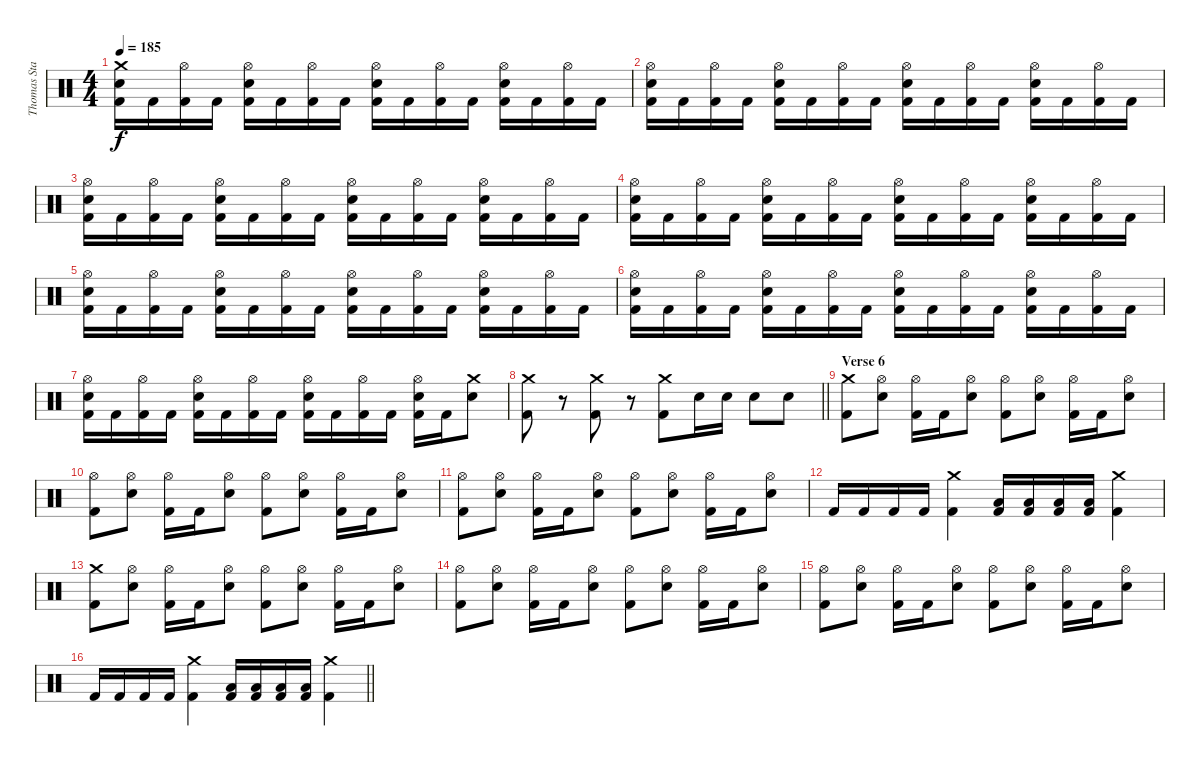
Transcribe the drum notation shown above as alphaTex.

\track ("Thomas Stauch" "Thomas Sta") {instrument percussion}
\staff {score}
\articulation defaults
\ts (4 4)
\tempo 185
\clef neutral
\ks c
("Crash medium (hit)" "Electric Snare (hit)" "Kick (hit) 2").16{dy f} "Kick (hit) 2".16 ("Hi-Hat (open)" "Kick (hit) 2").16 "Kick (hit) 2".16 ("Hi-Hat (open)" "Electric Snare (hit)" "Kick (hit) 2").16 "Kick (hit) 2".16 ("Hi-Hat (open)" "Kick (hit) 2").16 "Kick (hit) 2".16 ("Hi-Hat (open)" "Electric Snare (hit)" "Kick (hit) 2").16 "Kick (hit) 2".16 ("Hi-Hat (open)" "Kick (hit) 2").16 "Kick (hit) 2".16 ("Hi-Hat (open)" "Electric Snare (hit)" "Kick (hit) 2").16 "Kick (hit) 2".16 ("Hi-Hat (open)" "Kick (hit) 2").16 "Kick (hit) 2".16 |
("Hi-Hat (open)" "Electric Snare (hit)" "Kick (hit) 2").16 "Kick (hit) 2".16 ("Hi-Hat (open)" "Kick (hit) 2").16 "Kick (hit) 2".16 ("Hi-Hat (open)" "Electric Snare (hit)" "Kick (hit) 2").16 "Kick (hit) 2".16 ("Hi-Hat (open)" "Kick (hit) 2").16 "Kick (hit) 2".16 ("Hi-Hat (open)" "Electric Snare (hit)" "Kick (hit) 2").16 "Kick (hit) 2".16 ("Hi-Hat (open)" "Kick (hit) 2").16 "Kick (hit) 2".16 ("Hi-Hat (open)" "Electric Snare (hit)" "Kick (hit) 2").16 "Kick (hit) 2".16 ("Hi-Hat (open)" "Kick (hit) 2").16 "Kick (hit) 2".16 |
("Hi-Hat (open)" "Electric Snare (hit)" "Kick (hit) 2").16 "Kick (hit) 2".16 ("Hi-Hat (open)" "Kick (hit) 2").16 "Kick (hit) 2".16 ("Hi-Hat (open)" "Electric Snare (hit)" "Kick (hit) 2").16 "Kick (hit) 2".16 ("Hi-Hat (open)" "Kick (hit) 2").16 "Kick (hit) 2".16 ("Hi-Hat (open)" "Electric Snare (hit)" "Kick (hit) 2").16 "Kick (hit) 2".16 ("Hi-Hat (open)" "Kick (hit) 2").16 "Kick (hit) 2".16 ("Hi-Hat (open)" "Electric Snare (hit)" "Kick (hit) 2").16 "Kick (hit) 2".16 ("Hi-Hat (open)" "Kick (hit) 2").16 "Kick (hit) 2".16 |
("Hi-Hat (open)" "Electric Snare (hit)" "Kick (hit) 2").16 "Kick (hit) 2".16 ("Hi-Hat (open)" "Kick (hit) 2").16 "Kick (hit) 2".16 ("Hi-Hat (open)" "Electric Snare (hit)" "Kick (hit) 2").16 "Kick (hit) 2".16 ("Hi-Hat (open)" "Kick (hit) 2").16 "Kick (hit) 2".16 ("Hi-Hat (open)" "Electric Snare (hit)" "Kick (hit) 2").16 "Kick (hit) 2".16 ("Hi-Hat (open)" "Kick (hit) 2").16 "Kick (hit) 2".16 ("Hi-Hat (open)" "Electric Snare (hit)" "Kick (hit) 2").16 "Kick (hit) 2".16 ("Hi-Hat (open)" "Kick (hit) 2").16 "Kick (hit) 2".16 |
("Hi-Hat (open)" "Electric Snare (hit)" "Kick (hit) 2").16 "Kick (hit) 2".16 ("Hi-Hat (open)" "Kick (hit) 2").16 "Kick (hit) 2".16 ("Hi-Hat (open)" "Electric Snare (hit)" "Kick (hit) 2").16 "Kick (hit) 2".16 ("Hi-Hat (open)" "Kick (hit) 2").16 "Kick (hit) 2".16 ("Hi-Hat (open)" "Electric Snare (hit)" "Kick (hit) 2").16 "Kick (hit) 2".16 ("Hi-Hat (open)" "Kick (hit) 2").16 "Kick (hit) 2".16 ("Hi-Hat (open)" "Electric Snare (hit)" "Kick (hit) 2").16 "Kick (hit) 2".16 ("Hi-Hat (open)" "Kick (hit) 2").16 "Kick (hit) 2".16 |
("Hi-Hat (open)" "Electric Snare (hit)" "Kick (hit) 2").16 "Kick (hit) 2".16 ("Hi-Hat (open)" "Kick (hit) 2").16 "Kick (hit) 2".16 ("Hi-Hat (open)" "Electric Snare (hit)" "Kick (hit) 2").16 "Kick (hit) 2".16 ("Hi-Hat (open)" "Kick (hit) 2").16 "Kick (hit) 2".16 ("Hi-Hat (open)" "Electric Snare (hit)" "Kick (hit) 2").16 "Kick (hit) 2".16 ("Hi-Hat (open)" "Kick (hit) 2").16 "Kick (hit) 2".16 ("Hi-Hat (open)" "Electric Snare (hit)" "Kick (hit) 2").16 "Kick (hit) 2".16 ("Hi-Hat (open)" "Kick (hit) 2").16 "Kick (hit) 2".16 |
("Hi-Hat (open)" "Electric Snare (hit)" "Kick (hit) 2").16 "Kick (hit) 2".16 ("Hi-Hat (open)" "Kick (hit) 2").16 "Kick (hit) 2".16 ("Hi-Hat (open)" "Electric Snare (hit)" "Kick (hit) 2").16 "Kick (hit) 2".16 ("Hi-Hat (open)" "Kick (hit) 2").16 "Kick (hit) 2".16 ("Hi-Hat (open)" "Electric Snare (hit)" "Kick (hit) 2").16 "Kick (hit) 2".16 ("Hi-Hat (open)" "Kick (hit) 2").16 "Kick (hit) 2".16 ("Hi-Hat (open)" "Electric Snare (hit)" "Kick (hit) 2").16 "Kick (hit) 2".16 ("Crash medium (hit)" "Electric Snare (hit)").8 |
\barLineRight lightlight
("Crash medium (hit)" "Kick (hit) 2").8 r.8 ("Crash medium (hit)" "Kick (hit) 2").8 r.8 ("Crash medium (hit)" "Kick (hit) 2").8 "Electric Snare (hit)".16 "Electric Snare (hit)".16 "Electric Snare (hit)".8 "Electric Snare (hit)".8 |
\section ("" "Verse 6")
("Crash medium (hit)" "Kick (hit) 2").8 ("Hi-Hat (open)" "Electric Snare (hit)").8 ("Hi-Hat (open)" "Kick (hit) 2").16 "Kick (hit) 2".16 ("Hi-Hat (open)" "Electric Snare (hit)").8 ("Hi-Hat (open)" "Kick (hit) 2").8 ("Hi-Hat (open)" "Electric Snare (hit)").8 ("Hi-Hat (open)" "Kick (hit) 2").16 "Kick (hit) 2".16 ("Hi-Hat (open)" "Electric Snare (hit)").8 |
("Hi-Hat (open)" "Kick (hit) 2").8 ("Hi-Hat (open)" "Electric Snare (hit)").8 ("Hi-Hat (open)" "Kick (hit) 2").16 "Kick (hit) 2".16 ("Hi-Hat (open)" "Electric Snare (hit)").8 ("Hi-Hat (open)" "Kick (hit) 2").8 ("Hi-Hat (open)" "Electric Snare (hit)").8 ("Hi-Hat (open)" "Kick (hit) 2").16 "Kick (hit) 2".16 ("Hi-Hat (open)" "Electric Snare (hit)").8 |
("Hi-Hat (open)" "Kick (hit) 2").8 ("Hi-Hat (open)" "Electric Snare (hit)").8 ("Hi-Hat (open)" "Kick (hit) 2").16 "Kick (hit) 2".16 ("Hi-Hat (open)" "Electric Snare (hit)").8 ("Hi-Hat (open)" "Kick (hit) 2").8 ("Hi-Hat (open)" "Electric Snare (hit)").8 ("Hi-Hat (open)" "Kick (hit) 2").16 "Kick (hit) 2".16 ("Hi-Hat (open)" "Electric Snare (hit)").8 |
"Kick (hit) 2".16 "Kick (hit) 2".16 "Kick (hit) 2".16 "Kick (hit) 2".16 ("Crash medium (hit)" "Kick (hit) 2").4 ("Low Tom (hit)" "Kick (hit) 2").16 ("Low Tom (hit)" "Kick (hit) 2").16 ("Low Tom (hit)" "Kick (hit) 2").16 ("Low Tom (hit)" "Kick (hit) 2").16 ("Crash medium (hit)" "Kick (hit) 2").4 |
("Crash medium (hit)" "Kick (hit) 2").8 ("Hi-Hat (open)" "Electric Snare (hit)").8 ("Hi-Hat (open)" "Kick (hit) 2").16 "Kick (hit) 2".16 ("Hi-Hat (open)" "Electric Snare (hit)").8 ("Hi-Hat (open)" "Kick (hit) 2").8 ("Hi-Hat (open)" "Electric Snare (hit)").8 ("Hi-Hat (open)" "Kick (hit) 2").16 "Kick (hit) 2".16 ("Hi-Hat (open)" "Electric Snare (hit)").8 |
("Hi-Hat (open)" "Kick (hit) 2").8 ("Hi-Hat (open)" "Electric Snare (hit)").8 ("Hi-Hat (open)" "Kick (hit) 2").16 "Kick (hit) 2".16 ("Hi-Hat (open)" "Electric Snare (hit)").8 ("Hi-Hat (open)" "Kick (hit) 2").8 ("Hi-Hat (open)" "Electric Snare (hit)").8 ("Hi-Hat (open)" "Kick (hit) 2").16 "Kick (hit) 2".16 ("Hi-Hat (open)" "Electric Snare (hit)").8 |
("Hi-Hat (open)" "Kick (hit) 2").8 ("Hi-Hat (open)" "Electric Snare (hit)").8 ("Hi-Hat (open)" "Kick (hit) 2").16 "Kick (hit) 2".16 ("Hi-Hat (open)" "Electric Snare (hit)").8 ("Hi-Hat (open)" "Kick (hit) 2").8 ("Hi-Hat (open)" "Electric Snare (hit)").8 ("Hi-Hat (open)" "Kick (hit) 2").16 "Kick (hit) 2".16 ("Hi-Hat (open)" "Electric Snare (hit)").8 |
\barLineRight lightlight "Kick (hit) 2".16 "Kick (hit) 2".16 "Kick (hit) 2".16 "Kick (hit) 2".16
("Crash medium (hit)" "Kick (hit) 2").4 ("Low Tom (hit)" "Kick (hit) 2").16 ("Low Tom (hit)" "Kick (hit) 2").16 ("Low Tom (hit)" "Kick (hit) 2").16 ("Low Tom (hit)" "Kick (hit) 2").16 ("Crash medium (hit)" "Kick (hit) 2").4
